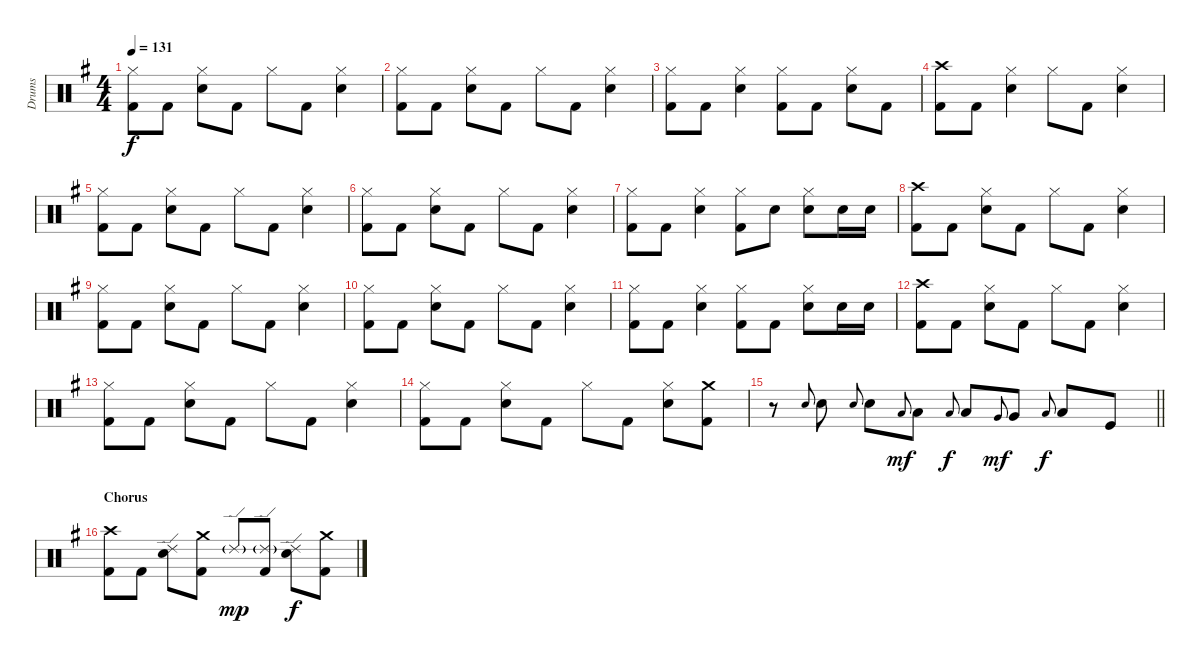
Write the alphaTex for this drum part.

\track ("Drums" "Drums") {instrument percussion}
\staff {score}
\articulation defaults
\ts (4 4)
\tempo 131
\clef neutral
\ks g
("Hi-Hat (closed)" "Kick (hit) 2").8{dy f} "Kick (hit) 2".8 ("Hi-Hat (closed)" "Electric Snare (hit)").8 "Kick (hit) 2".8 "Hi-Hat (closed)".8 "Kick (hit) 2".8 ("Hi-Hat (closed)" "Electric Snare (hit)").4 |
("Hi-Hat (closed)" "Kick (hit) 2").8 "Kick (hit) 2".8 ("Hi-Hat (closed)" "Electric Snare (hit)").8 "Kick (hit) 2".8 "Hi-Hat (closed)".8 "Kick (hit) 2".8 ("Hi-Hat (closed)" "Electric Snare (hit)").4 |
("Hi-Hat (closed)" "Kick (hit) 2").8 "Kick (hit) 2".8 ("Hi-Hat (closed)" "Electric Snare (hit)").4 ("Hi-Hat (closed)" "Kick (hit) 2").8 "Kick (hit) 2".8 ("Hi-Hat (closed)" "Electric Snare (hit)").8 "Kick (hit) 2".8 |
("Crash high (hit)" "Kick (hit) 2").8 "Kick (hit) 2".8 ("Hi-Hat (closed)" "Electric Snare (hit)").4 "Hi-Hat (closed)".8 "Kick (hit) 2".8 ("Hi-Hat (closed)" "Electric Snare (hit)").4 |
("Hi-Hat (closed)" "Kick (hit) 2").8 "Kick (hit) 2".8 ("Hi-Hat (closed)" "Electric Snare (hit)").8 "Kick (hit) 2".8 "Hi-Hat (closed)".8 "Kick (hit) 2".8 ("Hi-Hat (closed)" "Electric Snare (hit)").4 |
("Hi-Hat (closed)" "Kick (hit) 2").8 "Kick (hit) 2".8 ("Hi-Hat (closed)" "Electric Snare (hit)").8 "Kick (hit) 2".8 "Hi-Hat (closed)".8 "Kick (hit) 2".8 ("Hi-Hat (closed)" "Electric Snare (hit)").4 |
("Hi-Hat (closed)" "Kick (hit) 2").8 "Kick (hit) 2".8 ("Hi-Hat (closed)" "Electric Snare (hit)").4 ("Hi-Hat (closed)" "Kick (hit) 2").8 "Electric Snare (hit)".8 ("Hi-Hat (closed)" "Electric Snare (hit)").8 "Electric Snare (hit)".16 "Electric Snare (hit)".16 |
("Crash high (hit)" "Kick (hit) 2").8 "Kick (hit) 2".8 ("Hi-Hat (closed)" "Electric Snare (hit)").8 "Kick (hit) 2".8 "Hi-Hat (closed)".8 "Kick (hit) 2".8 ("Hi-Hat (closed)" "Electric Snare (hit)").4 |
("Hi-Hat (closed)" "Kick (hit) 2").8 "Kick (hit) 2".8 ("Hi-Hat (closed)" "Electric Snare (hit)").8 "Kick (hit) 2".8 "Hi-Hat (closed)".8 "Kick (hit) 2".8 ("Hi-Hat (closed)" "Electric Snare (hit)").4 |
("Hi-Hat (closed)" "Kick (hit) 2").8 "Kick (hit) 2".8 ("Hi-Hat (closed)" "Electric Snare (hit)").8 "Kick (hit) 2".8 "Hi-Hat (closed)".8 "Kick (hit) 2".8 ("Hi-Hat (closed)" "Electric Snare (hit)").4 |
("Hi-Hat (closed)" "Kick (hit) 2").8 "Kick (hit) 2".8 ("Hi-Hat (closed)" "Electric Snare (hit)").4 ("Hi-Hat (closed)" "Kick (hit) 2").8 "Kick (hit) 2".8 ("Hi-Hat (closed)" "Electric Snare (hit)").8 "Electric Snare (hit)".16 "Electric Snare (hit)".16 |
("Crash high (hit)" "Kick (hit) 2").8 "Kick (hit) 2".8 ("Hi-Hat (closed)" "Electric Snare (hit)").8 "Kick (hit) 2".8 "Hi-Hat (closed)".8 "Kick (hit) 2".8 ("Hi-Hat (closed)" "Electric Snare (hit)").4 |
("Hi-Hat (closed)" "Kick (hit) 2").8 "Kick (hit) 2".8 ("Hi-Hat (closed)" "Electric Snare (hit)").8 "Kick (hit) 2".8 "Hi-Hat (closed)".8 "Kick (hit) 2".8 ("Hi-Hat (closed)" "Electric Snare (hit)").4 |
("Hi-Hat (closed)" "Kick (hit) 2").8 "Kick (hit) 2".8 ("Hi-Hat (closed)" "Electric Snare (hit)").8 "Kick (hit) 2".8 "Hi-Hat (closed)".8 "Kick (hit) 2".8 ("Hi-Hat (closed)" "Electric Snare (hit)").8 ("Crash medium (hit)" "Kick (hit) 2").8 |
\barLineRight lightlight
r.8 "Electric Snare (hit)".8{gr onbeat} "Electric Snare (hit)".8 "Electric Snare (hit)".8{gr onbeat} "Electric Snare (hit)".8 "Low Tom (hit)".8{gr onbeat dy mf} "Low Tom (hit)".8 "Low Tom (hit)".8{gr onbeat dy f} "Low Tom (hit)".8 "Very Low Tom (hit)".8{gr onbeat dy mf} "Very Low Tom (hit)".8 "Low Floor Tom (hit)".8{gr onbeat dy f} "Low Floor Tom (hit)".8 "Kick (hit)".8 |
\section ("" "Chorus")
("Crash high (hit)" "Kick (hit) 2").8 "Kick (hit) 2".8 ("Ride (edge) 2" "Electric Snare (hit)").8 ("Crash medium (hit)" "Kick (hit) 2").8 "Ride (edge) 2"{g}.8{dy mp} ("Ride (edge) 2"{g} "Kick (hit) 2").8 ("Ride (edge) 2" "Electric Snare (hit)").8{dy f} ("Crash medium (hit)" "Kick (hit) 2").8
